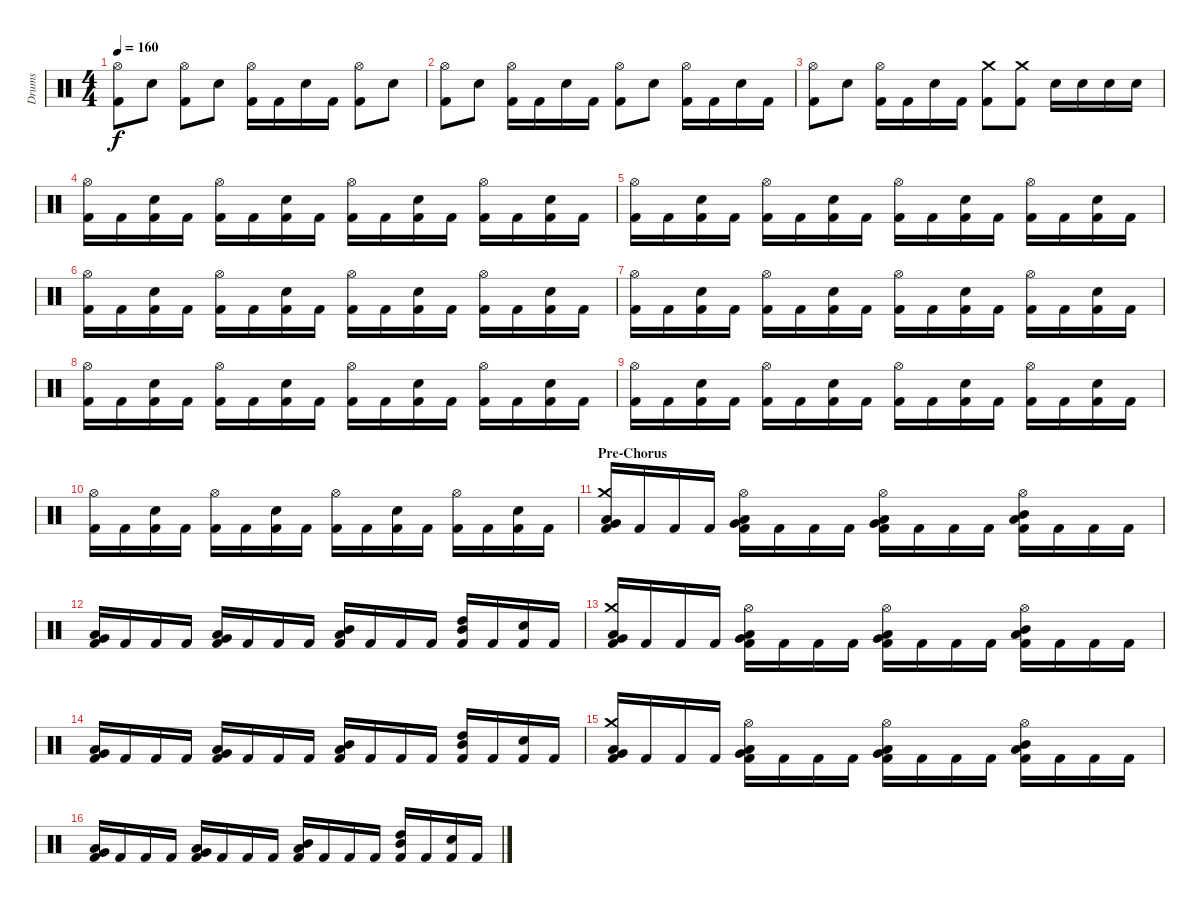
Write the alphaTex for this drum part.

\track ("Drums" "Drums") {instrument percussion}
\staff {score}
\articulation defaults
\ts (4 4)
\tempo 160
\clef neutral
\ks c
("Hi-Hat (open)" "Kick (hit) 2").8{dy f} "Electric Snare (hit)".8 ("Hi-Hat (open)" "Kick (hit) 2").8 "Electric Snare (hit)".8 ("Hi-Hat (open)" "Kick (hit) 2").16 "Kick (hit) 2".16 "Electric Snare (hit)".16 "Kick (hit) 2".16 ("Hi-Hat (open)" "Kick (hit) 2").8 "Electric Snare (hit)".8 |
("Hi-Hat (open)" "Kick (hit) 2").8 "Electric Snare (hit)".8 ("Hi-Hat (open)" "Kick (hit) 2").16 "Kick (hit) 2".16 "Electric Snare (hit)".16 "Kick (hit) 2".16 ("Hi-Hat (open)" "Kick (hit) 2").8 "Electric Snare (hit)".8 ("Hi-Hat (open)" "Kick (hit) 2").16 "Kick (hit) 2".16 "Electric Snare (hit)".16 "Kick (hit) 2".16 |
("Hi-Hat (open)" "Kick (hit) 2").8 "Electric Snare (hit)".8 ("Hi-Hat (open)" "Kick (hit) 2").16 "Kick (hit) 2".16 "Electric Snare (hit)".16 "Kick (hit) 2".16 ("Crash medium (hit)" "Kick (hit) 2").8 ("Crash medium (hit)" "Kick (hit) 2").8 "Electric Snare (hit)".16 "Electric Snare (hit)".16 "Electric Snare (hit)".16 "Electric Snare (hit)".16 |
("Hi-Hat (open)" "Kick (hit) 2").16 "Kick (hit) 2".16 ("Electric Snare (hit)" "Kick (hit) 2").16 "Kick (hit) 2".16 ("Hi-Hat (open)" "Kick (hit) 2").16 "Kick (hit) 2".16 ("Electric Snare (hit)" "Kick (hit) 2").16 "Kick (hit) 2".16 ("Hi-Hat (open)" "Kick (hit) 2").16 "Kick (hit) 2".16 ("Electric Snare (hit)" "Kick (hit) 2").16 "Kick (hit) 2".16 ("Hi-Hat (open)" "Kick (hit) 2").16 "Kick (hit) 2".16 ("Electric Snare (hit)" "Kick (hit) 2").16 "Kick (hit) 2".16 |
("Hi-Hat (open)" "Kick (hit) 2").16 "Kick (hit) 2".16 ("Electric Snare (hit)" "Kick (hit) 2").16 "Kick (hit) 2".16 ("Hi-Hat (open)" "Kick (hit) 2").16 "Kick (hit) 2".16 ("Electric Snare (hit)" "Kick (hit) 2").16 "Kick (hit) 2".16 ("Hi-Hat (open)" "Kick (hit) 2").16 "Kick (hit) 2".16 ("Electric Snare (hit)" "Kick (hit) 2").16 "Kick (hit) 2".16 ("Hi-Hat (open)" "Kick (hit) 2").16 "Kick (hit) 2".16 ("Electric Snare (hit)" "Kick (hit) 2").16 "Kick (hit) 2".16 |
("Hi-Hat (open)" "Kick (hit) 2").16 "Kick (hit) 2".16 ("Electric Snare (hit)" "Kick (hit) 2").16 "Kick (hit) 2".16 ("Hi-Hat (open)" "Kick (hit) 2").16 "Kick (hit) 2".16 ("Electric Snare (hit)" "Kick (hit) 2").16 "Kick (hit) 2".16 ("Hi-Hat (open)" "Kick (hit) 2").16 "Kick (hit) 2".16 ("Electric Snare (hit)" "Kick (hit) 2").16 "Kick (hit) 2".16 ("Hi-Hat (open)" "Kick (hit) 2").16 "Kick (hit) 2".16 ("Electric Snare (hit)" "Kick (hit) 2").16 "Kick (hit) 2".16 |
("Hi-Hat (open)" "Kick (hit) 2").16 "Kick (hit) 2".16 ("Electric Snare (hit)" "Kick (hit) 2").16 "Kick (hit) 2".16 ("Hi-Hat (open)" "Kick (hit) 2").16 "Kick (hit) 2".16 ("Electric Snare (hit)" "Kick (hit) 2").16 "Kick (hit) 2".16 ("Hi-Hat (open)" "Kick (hit) 2").16 "Kick (hit) 2".16 ("Electric Snare (hit)" "Kick (hit) 2").16 "Kick (hit) 2".16 ("Hi-Hat (open)" "Kick (hit) 2").16 "Kick (hit) 2".16 ("Electric Snare (hit)" "Kick (hit) 2").16 "Kick (hit) 2".16 |
("Hi-Hat (open)" "Kick (hit) 2").16 "Kick (hit) 2".16 ("Electric Snare (hit)" "Kick (hit) 2").16 "Kick (hit) 2".16 ("Hi-Hat (open)" "Kick (hit) 2").16 "Kick (hit) 2".16 ("Electric Snare (hit)" "Kick (hit) 2").16 "Kick (hit) 2".16 ("Hi-Hat (open)" "Kick (hit) 2").16 "Kick (hit) 2".16 ("Electric Snare (hit)" "Kick (hit) 2").16 "Kick (hit) 2".16 ("Hi-Hat (open)" "Kick (hit) 2").16 "Kick (hit) 2".16 ("Electric Snare (hit)" "Kick (hit) 2").16 "Kick (hit) 2".16 |
("Hi-Hat (open)" "Kick (hit) 2").16 "Kick (hit) 2".16 ("Electric Snare (hit)" "Kick (hit) 2").16 "Kick (hit) 2".16 ("Hi-Hat (open)" "Kick (hit) 2").16 "Kick (hit) 2".16 ("Electric Snare (hit)" "Kick (hit) 2").16 "Kick (hit) 2".16 ("Hi-Hat (open)" "Kick (hit) 2").16 "Kick (hit) 2".16 ("Electric Snare (hit)" "Kick (hit) 2").16 "Kick (hit) 2".16 ("Hi-Hat (open)" "Kick (hit) 2").16 "Kick (hit) 2".16 ("Electric Snare (hit)" "Kick (hit) 2").16 "Kick (hit) 2".16 |
("Hi-Hat (open)" "Kick (hit) 2").16 "Kick (hit) 2".16 ("Electric Snare (hit)" "Kick (hit) 2").16 "Kick (hit) 2".16 ("Hi-Hat (open)" "Kick (hit) 2").16 "Kick (hit) 2".16 ("Electric Snare (hit)" "Kick (hit) 2").16 "Kick (hit) 2".16 ("Hi-Hat (open)" "Kick (hit) 2").16 "Kick (hit) 2".16 ("Electric Snare (hit)" "Kick (hit) 2").16 "Kick (hit) 2".16 ("Hi-Hat (open)" "Kick (hit) 2").16 "Kick (hit) 2".16 ("Electric Snare (hit)" "Kick (hit) 2").16 "Kick (hit) 2".16 |
\section ("" "Pre-Chorus")
("Crash medium (hit)" "Very Low Tom (hit)" "Low Floor Tom (hit)" "Kick (hit) 2").16 "Kick (hit) 2".16 "Kick (hit) 2".16 "Kick (hit) 2".16 ("Hi-Hat (open)" "Low Tom (hit)" "Very Low Tom (hit)" "Kick (hit) 2").16 "Kick (hit) 2".16 "Kick (hit) 2".16 "Kick (hit) 2".16 ("Hi-Hat (open)" "Low Tom (hit)" "Very Low Tom (hit)" "Kick (hit) 2").16 "Kick (hit) 2".16 "Kick (hit) 2".16 "Kick (hit) 2".16 ("Hi-Hat (open)" "Mid Tom (hit)" "Low Tom (hit)" "Kick (hit) 2").16 "Kick (hit) 2".16 "Kick (hit) 2".16 "Kick (hit) 2".16 |
("Very Low Tom (hit)" "Low Floor Tom (hit)" "Kick (hit) 2").16 "Kick (hit) 2".16 "Kick (hit) 2".16 "Kick (hit) 2".16 ("Low Tom (hit)" "Very Low Tom (hit)" "Kick (hit) 2").16 "Kick (hit) 2".16 "Kick (hit) 2".16 "Kick (hit) 2".16 ("Mid Tom (hit)" "Low Tom (hit)" "Kick (hit) 2").16 "Kick (hit) 2".16 "Kick (hit) 2".16 "Kick (hit) 2".16 ("High Tom (hit)" "Mid Tom (hit)" "Kick (hit) 2").16 "Kick (hit) 2".16 ("Electric Snare (hit)" "Kick (hit) 2").16 "Kick (hit) 2".16 |
("Crash medium (hit)" "Very Low Tom (hit)" "Low Floor Tom (hit)" "Kick (hit) 2").16 "Kick (hit) 2".16 "Kick (hit) 2".16 "Kick (hit) 2".16 ("Hi-Hat (open)" "Low Tom (hit)" "Very Low Tom (hit)" "Kick (hit) 2").16 "Kick (hit) 2".16 "Kick (hit) 2".16 "Kick (hit) 2".16 ("Hi-Hat (open)" "Low Tom (hit)" "Very Low Tom (hit)" "Kick (hit) 2").16 "Kick (hit) 2".16 "Kick (hit) 2".16 "Kick (hit) 2".16 ("Hi-Hat (open)" "Mid Tom (hit)" "Low Tom (hit)" "Kick (hit) 2").16 "Kick (hit) 2".16 "Kick (hit) 2".16 "Kick (hit) 2".16 |
("Very Low Tom (hit)" "Low Floor Tom (hit)" "Kick (hit) 2").16 "Kick (hit) 2".16 "Kick (hit) 2".16 "Kick (hit) 2".16 ("Low Tom (hit)" "Very Low Tom (hit)" "Kick (hit) 2").16 "Kick (hit) 2".16 "Kick (hit) 2".16 "Kick (hit) 2".16 ("Mid Tom (hit)" "Low Tom (hit)" "Kick (hit) 2").16 "Kick (hit) 2".16 "Kick (hit) 2".16 "Kick (hit) 2".16 ("High Tom (hit)" "Mid Tom (hit)" "Kick (hit) 2").16 "Kick (hit) 2".16 ("Electric Snare (hit)" "Kick (hit) 2").16 "Kick (hit) 2".16 |
("Crash medium (hit)" "Very Low Tom (hit)" "Low Floor Tom (hit)" "Kick (hit) 2").16 "Kick (hit) 2".16 "Kick (hit) 2".16 "Kick (hit) 2".16 ("Hi-Hat (open)" "Low Tom (hit)" "Very Low Tom (hit)" "Kick (hit) 2").16 "Kick (hit) 2".16 "Kick (hit) 2".16 "Kick (hit) 2".16 ("Hi-Hat (open)" "Low Tom (hit)" "Very Low Tom (hit)" "Kick (hit) 2").16 "Kick (hit) 2".16 "Kick (hit) 2".16 "Kick (hit) 2".16 ("Hi-Hat (open)" "Mid Tom (hit)" "Low Tom (hit)" "Kick (hit) 2").16 "Kick (hit) 2".16 "Kick (hit) 2".16 "Kick (hit) 2".16 |
("Very Low Tom (hit)" "Low Floor Tom (hit)" "Kick (hit) 2").16 "Kick (hit) 2".16 "Kick (hit) 2".16 "Kick (hit) 2".16 ("Low Tom (hit)" "Very Low Tom (hit)" "Kick (hit) 2").16 "Kick (hit) 2".16 "Kick (hit) 2".16 "Kick (hit) 2".16 ("Mid Tom (hit)" "Low Tom (hit)" "Kick (hit) 2").16 "Kick (hit) 2".16 "Kick (hit) 2".16 "Kick (hit) 2".16 ("High Tom (hit)" "Mid Tom (hit)" "Kick (hit) 2").16 "Kick (hit) 2".16 ("Electric Snare (hit)" "Kick (hit) 2").16 "Kick (hit) 2".16
